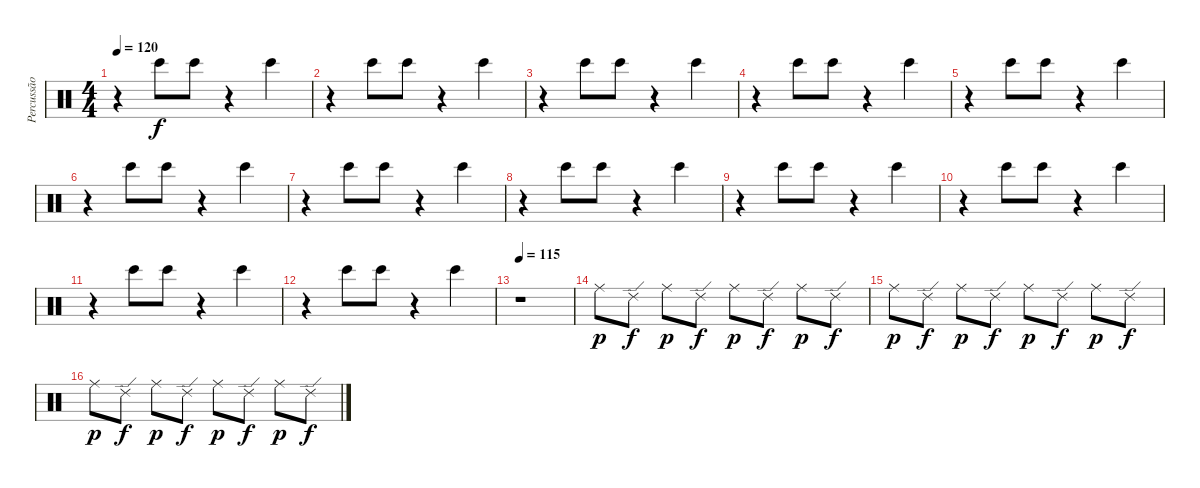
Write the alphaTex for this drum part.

\track ("Percussão" "Percussão") {instrument percussion}
\staff {score}
\articulation defaults
\ts (4 4)
\tempo 120
\clef neutral
\ks c
r.4{dy f} "Bongo High (hit)".8 "Bongo High (hit)".8 r.4 "Bongo High (hit)".4 |
r.4 "Bongo High (hit)".8 "Bongo High (hit)".8 r.4 "Bongo High (hit)".4 |
r.4 "Bongo High (hit)".8 "Bongo High (hit)".8 r.4 "Bongo High (hit)".4 |
r.4 "Bongo High (hit)".8 "Bongo High (hit)".8 r.4 "Bongo High (hit)".4 |
r.4 "Bongo High (hit)".8 "Bongo High (hit)".8 r.4 "Bongo High (hit)".4 |
r.4 "Bongo High (hit)".8 "Bongo High (hit)".8 r.4 "Bongo High (hit)".4 |
r.4 "Bongo High (hit)".8 "Bongo High (hit)".8 r.4 "Bongo High (hit)".4 |
r.4 "Bongo High (hit)".8 "Bongo High (hit)".8 r.4 "Bongo High (hit)".4 |
r.4 "Bongo High (hit)".8 "Bongo High (hit)".8 r.4 "Bongo High (hit)".4 |
r.4 "Bongo High (hit)".8 "Bongo High (hit)".8 r.4 "Bongo High (hit)".4 |
r.4 "Bongo High (hit)".8 "Bongo High (hit)".8 r.4 "Bongo High (hit)".4 |
r.4 "Bongo High (hit)".8 "Bongo High (hit)".8 r.4 "Bongo High (hit)".4 |
\tempo 115
r.1 |
"Ride (middle)".8{dy p} "Ride (edge) 2".8{dy f} "Ride (middle)".8{dy p} "Ride (edge) 2".8{dy f} "Ride (middle)".8{dy p} "Ride (edge) 2".8{dy f} "Ride (middle)".8{dy p} "Ride (edge) 2".8{dy f} |
"Ride (middle)".8{dy p} "Ride (edge) 2".8{dy f} "Ride (middle)".8{dy p} "Ride (edge) 2".8{dy f} "Ride (middle)".8{dy p} "Ride (edge) 2".8{dy f} "Ride (middle)".8{dy p} "Ride (edge) 2".8{dy f} |
"Ride (middle)".8{dy p} "Ride (edge) 2".8{dy f} "Ride (middle)".8{dy p} "Ride (edge) 2".8{dy f} "Ride (middle)".8{dy p} "Ride (edge) 2".8{dy f} "Ride (middle)".8{dy p} "Ride (edge) 2".8{dy f}
